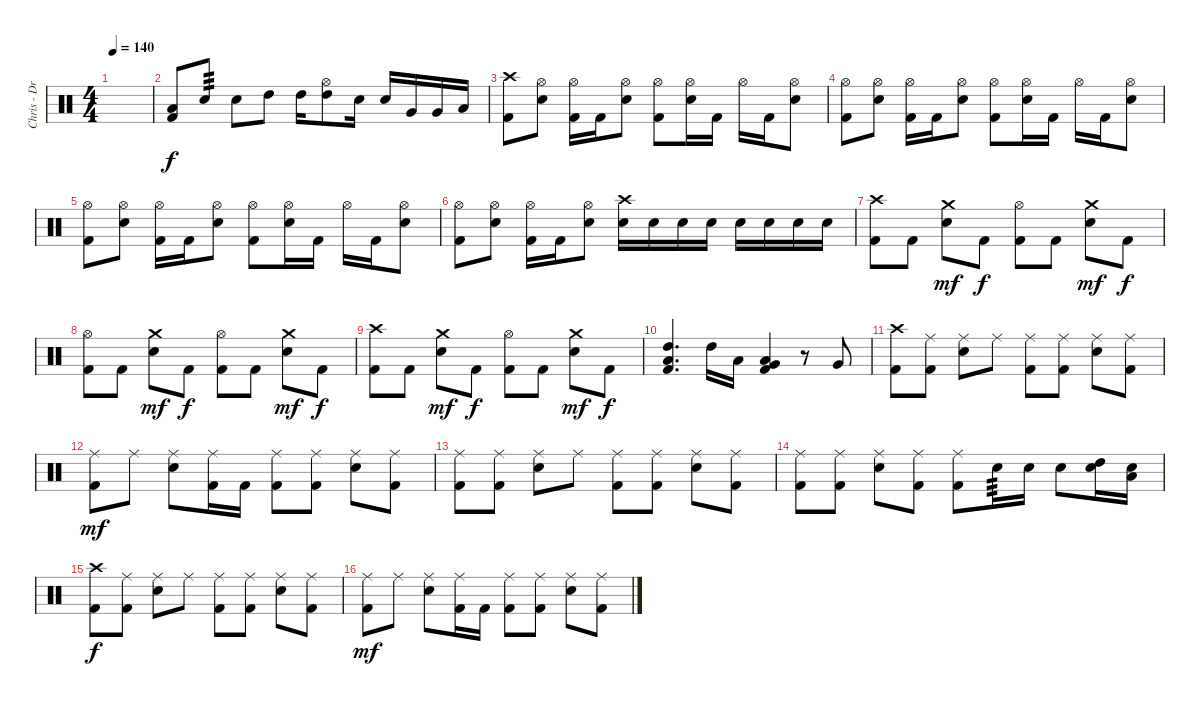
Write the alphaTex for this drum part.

\track ("Chris - Drums" "Chris - Dr") {instrument percussion}
\staff {score}
\articulation defaults
\ts (4 4)
\tempo 140
\clef neutral
\ks c
|
("Low Floor Tom (hit)" "Kick (hit) 2").8{dy f} "Electric Snare (hit)".8{tp 3} "Electric Snare (hit)".8 "High Tom (hit)".8 "High Tom (hit)".16 ("Hi-Hat (open)" "High Tom (hit)").8 "Electric Snare (hit)".16 "Electric Snare (hit)".16 "Very Low Tom (hit)".16 "Very Low Tom (hit)".16 "Low Floor Tom (hit)".16 |
("Crash high (hit)" "Kick (hit) 2").8 ("Hi-Hat (open)" "Electric Snare (hit)").8 ("Hi-Hat (open)" "Kick (hit) 2").16 "Kick (hit) 2".16 ("Hi-Hat (open)" "Electric Snare (hit)").8 ("Hi-Hat (open)" "Kick (hit) 2").8 ("Hi-Hat (open)" "Electric Snare (hit)").16 "Kick (hit) 2".16 "Hi-Hat (open)".16 "Kick (hit) 2".16 ("Hi-Hat (open)" "Electric Snare (hit)").8 |
("Hi-Hat (open)" "Kick (hit) 2").8 ("Hi-Hat (open)" "Electric Snare (hit)").8 ("Hi-Hat (open)" "Kick (hit) 2").16 "Kick (hit) 2".16 ("Hi-Hat (open)" "Electric Snare (hit)").8 ("Hi-Hat (open)" "Kick (hit) 2").8 ("Hi-Hat (open)" "Electric Snare (hit)").16 "Kick (hit) 2".16 "Hi-Hat (open)".16 "Kick (hit) 2".16 ("Hi-Hat (open)" "Electric Snare (hit)").8 |
("Hi-Hat (open)" "Kick (hit) 2").8 ("Hi-Hat (open)" "Electric Snare (hit)").8 ("Hi-Hat (open)" "Kick (hit) 2").16 "Kick (hit) 2".16 ("Hi-Hat (open)" "Electric Snare (hit)").8 ("Hi-Hat (open)" "Kick (hit) 2").8 ("Hi-Hat (open)" "Electric Snare (hit)").16 "Kick (hit) 2".16 "Hi-Hat (open)".16 "Kick (hit) 2".16 ("Hi-Hat (open)" "Electric Snare (hit)").8 |
("Hi-Hat (open)" "Kick (hit) 2").8 ("Hi-Hat (open)" "Electric Snare (hit)").8 ("Hi-Hat (open)" "Kick (hit) 2").16 "Kick (hit) 2".16 ("Hi-Hat (open)" "Electric Snare (hit)").8 ("Crash high (hit)" "Electric Snare (hit)").16 "Electric Snare (hit)".16 "Electric Snare (hit)".16 "Electric Snare (hit)".16 "Electric Snare (hit)".16 "Electric Snare (hit)".16 "Electric Snare (hit)".16 "Electric Snare (hit)".16 |
("Crash high (hit)" "Kick (hit) 2").8 "Kick (hit) 2".8 ("Crash medium (hit)" "Electric Snare (hit)").8{dy mf} "Kick (hit) 2".8{dy f} ("Hi-Hat (open)" "Kick (hit) 2").8 "Kick (hit) 2".8 ("Crash medium (hit)" "Electric Snare (hit)").8{dy mf} "Kick (hit) 2".8{dy f} |
("Hi-Hat (open)" "Kick (hit) 2").8 "Kick (hit) 2".8 ("Crash medium (hit)" "Electric Snare (hit)").8{dy mf} "Kick (hit) 2".8{dy f} ("Hi-Hat (open)" "Kick (hit) 2").8 "Kick (hit) 2".8 ("Crash medium (hit)" "Electric Snare (hit)").8{dy mf} "Kick (hit) 2".8{dy f} |
("Crash high (hit)" "Kick (hit) 2").8 "Kick (hit) 2".8 ("Crash medium (hit)" "Electric Snare (hit)").8{dy mf} "Kick (hit) 2".8{dy f} ("Hi-Hat (open)" "Kick (hit) 2").8 "Kick (hit) 2".8 ("Crash medium (hit)" "Electric Snare (hit)").8{dy mf} "Kick (hit) 2".8{dy f} |
("High Tom (hit)" "Low Tom (hit)" "Kick (hit) 2").4{d} "High Tom (hit)".16 "Low Tom (hit)".16 ("Low Tom (hit)" "Very Low Tom (hit)" "Kick (hit) 2").4 r.8 "Very Low Tom (hit)".8 |
("Crash high (hit)" "Kick (hit) 2").8 ("Ride (middle)" "Kick (hit) 2").8 ("Ride (middle)" "Electric Snare (hit)").8 "Ride (middle)".8 ("Ride (middle)" "Kick (hit) 2").8 ("Ride (middle)" "Kick (hit) 2").8 ("Ride (middle)" "Electric Snare (hit)").8 ("Ride (middle)" "Kick (hit) 2").8 |
("Ride (middle)" "Kick (hit) 2").8{dy mf} "Ride (middle)".8 ("Ride (middle)" "Electric Snare (hit)").8 ("Ride (middle)" "Kick (hit) 2").16 "Kick (hit) 2".16 ("Ride (middle)" "Kick (hit) 2").8 ("Ride (middle)" "Kick (hit) 2").8 ("Ride (middle)" "Electric Snare (hit)").8 ("Ride (middle)" "Kick (hit) 2").8 |
("Ride (middle)" "Kick (hit) 2").8 ("Ride (middle)" "Kick (hit) 2").8 ("Ride (middle)" "Electric Snare (hit)").8 "Ride (middle)".8 ("Ride (middle)" "Kick (hit) 2").8 ("Ride (middle)" "Kick (hit) 2").8 ("Ride (middle)" "Electric Snare (hit)").8 ("Ride (middle)" "Kick (hit) 2").8 |
("Ride (middle)" "Kick (hit) 2").8 ("Ride (middle)" "Kick (hit) 2").8 ("Ride (middle)" "Electric Snare (hit)").8 ("Ride (middle)" "Kick (hit) 2").8 ("Ride (middle)" "Kick (hit) 2").8 "Electric Snare (hit)".16{tp 3} "Electric Snare (hit)".16 "Electric Snare (hit)".8 ("High Tom (hit)" "Electric Snare (hit)").16 ("Low Tom (hit)" "Electric Snare (hit)").16 |
("Crash high (hit)" "Kick (hit) 2").8{dy f} ("Ride (middle)" "Kick (hit) 2").8 ("Ride (middle)" "Electric Snare (hit)").8 "Ride (middle)".8 ("Ride (middle)" "Kick (hit) 2").8 ("Ride (middle)" "Kick (hit) 2").8 ("Ride (middle)" "Electric Snare (hit)").8 ("Ride (middle)" "Kick (hit) 2").8 |
("Ride (middle)" "Kick (hit) 2").8{dy mf} "Ride (middle)".8 ("Ride (middle)" "Electric Snare (hit)").8 ("Ride (middle)" "Kick (hit) 2").16 "Kick (hit) 2".16 ("Ride (middle)" "Kick (hit) 2").8 ("Ride (middle)" "Kick (hit) 2").8 ("Ride (middle)" "Electric Snare (hit)").8 ("Ride (middle)" "Kick (hit) 2").8
